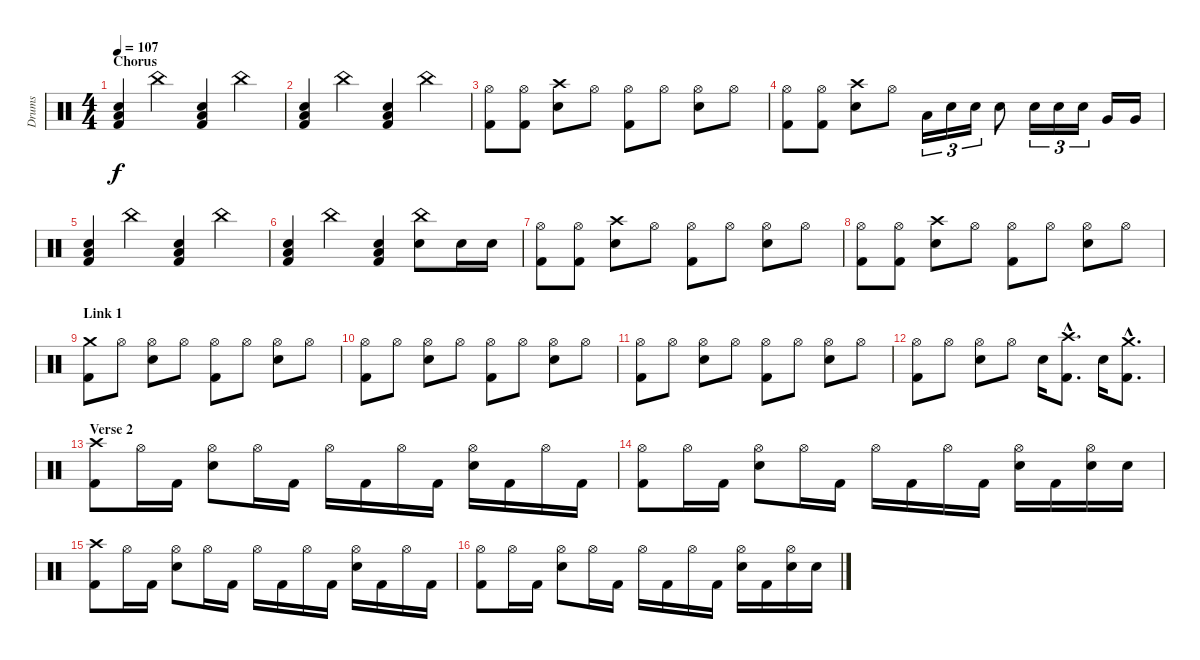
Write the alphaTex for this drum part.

\track ("Drums" "Drums") {instrument percussion}
\staff {score}
\articulation defaults
\ts (4 4)
\section ("" "Chorus")
\tempo 107
\clef neutral
\ks c
("Electric Snare (hit)" "Low Floor Tom (hit)" "Kick (hit) 2").4{dy f} "China (hit)".4 ("Electric Snare (hit)" "Low Floor Tom (hit)" "Kick (hit) 2").4 "China (hit)".4 |
("Electric Snare (hit)" "Low Floor Tom (hit)" "Kick (hit) 2").4 "China (hit)".4 ("Electric Snare (hit)" "Low Floor Tom (hit)" "Kick (hit) 2").4 "China (hit)".4 |
("Hi-Hat (open)" "Kick (hit) 2").8 ("Hi-Hat (open)" "Kick (hit) 2").8 ("Crash high (hit)" "Electric Snare (hit)").8 "Hi-Hat (open)".8 ("Hi-Hat (open)" "Kick (hit) 2").8 "Hi-Hat (open)".8 ("Hi-Hat (open)" "Electric Snare (hit)").8 "Hi-Hat (open)".8 |
("Hi-Hat (open)" "Kick (hit) 2").8 ("Hi-Hat (open)" "Kick (hit) 2").8 ("Crash high (hit)" "Electric Snare (hit)").8 "Hi-Hat (open)".8 "Low Tom (hit)".16{tu (3 2)} "Electric Snare (hit)".16{tu (3 2)} "Electric Snare (hit)".16{tu (3 2)} "Electric Snare (hit)".8 "Electric Snare (hit)".16{tu (3 2)} "Electric Snare (hit)".16{tu (3 2)} "Electric Snare (hit)".16{tu (3 2)} "Very Low Tom (hit)".16 "Very Low Tom (hit)".16 |
("Electric Snare (hit)" "Low Floor Tom (hit)" "Kick (hit) 2").4 "China (hit)".4 ("Electric Snare (hit)" "Low Floor Tom (hit)" "Kick (hit) 2").4 "China (hit)".4 |
("Electric Snare (hit)" "Low Floor Tom (hit)" "Kick (hit) 2").4 "China (hit)".4 ("Electric Snare (hit)" "Low Floor Tom (hit)" "Kick (hit) 2").4 ("China (hit)" "Electric Snare (hit)").8 "Electric Snare (hit)".16 "Electric Snare (hit)".16 |
("Hi-Hat (open)" "Kick (hit) 2").8 ("Hi-Hat (open)" "Kick (hit) 2").8 ("Crash high (hit)" "Electric Snare (hit)").8 "Hi-Hat (open)".8 ("Hi-Hat (open)" "Kick (hit) 2").8 "Hi-Hat (open)".8 ("Hi-Hat (open)" "Electric Snare (hit)").8 "Hi-Hat (open)".8 |
("Hi-Hat (open)" "Kick (hit) 2").8 ("Hi-Hat (open)" "Kick (hit) 2").8 ("Crash high (hit)" "Electric Snare (hit)").8 "Hi-Hat (open)".8 ("Hi-Hat (open)" "Kick (hit) 2").8 "Hi-Hat (open)".8 ("Hi-Hat (open)" "Electric Snare (hit)").8 "Hi-Hat (open)".8 |
\section ("" "Link 1")
("Crash medium (hit)" "Kick (hit) 2").8 "Hi-Hat (open)".8 ("Hi-Hat (open)" "Electric Snare (hit)").8 "Hi-Hat (open)".8 ("Hi-Hat (open)" "Kick (hit) 2").8 "Hi-Hat (open)".8 ("Hi-Hat (open)" "Electric Snare (hit)").8 "Hi-Hat (open)".8 |
("Hi-Hat (open)" "Kick (hit) 2").8 "Hi-Hat (open)".8 ("Hi-Hat (open)" "Electric Snare (hit)").8 "Hi-Hat (open)".8 ("Hi-Hat (open)" "Kick (hit) 2").8 "Hi-Hat (open)".8 ("Hi-Hat (open)" "Electric Snare (hit)").8 "Hi-Hat (open)".8 |
("Hi-Hat (open)" "Kick (hit) 2").8 "Hi-Hat (open)".8 ("Hi-Hat (open)" "Electric Snare (hit)").8 "Hi-Hat (open)".8 ("Hi-Hat (open)" "Kick (hit) 2").8 "Hi-Hat (open)".8 ("Hi-Hat (open)" "Electric Snare (hit)").8 "Hi-Hat (open)".8 |
("Hi-Hat (open)" "Kick (hit) 2").8 "Hi-Hat (open)".8 ("Hi-Hat (open)" "Electric Snare (hit)").8 "Hi-Hat (open)".8 "Electric Snare (hit)".16 ("Crash high (hit)"{hac} "Kick (hit) 2"{hac}).8{d} "Electric Snare (hit)".16 ("Crash medium (hit)"{hac} "Kick (hit) 2"{hac}).8{d} |
\section ("" "Verse 2")
("Crash high (hit)" "Kick (hit) 2").8 "Hi-Hat (open)".16 "Kick (hit) 2".16 ("Hi-Hat (open)" "Electric Snare (hit)").8 "Hi-Hat (open)".16 "Kick (hit) 2".16 "Hi-Hat (open)".16 "Kick (hit) 2".16 "Hi-Hat (open)".16 "Kick (hit) 2".16 ("Hi-Hat (open)" "Electric Snare (hit)").16 "Kick (hit) 2".16 "Hi-Hat (open)".16 "Kick (hit) 2".16 |
("Hi-Hat (open)" "Kick (hit) 2").8 "Hi-Hat (open)".16 "Kick (hit) 2".16 ("Hi-Hat (open)" "Electric Snare (hit)").8 "Hi-Hat (open)".16 "Kick (hit) 2".16 "Hi-Hat (open)".16 "Kick (hit) 2".16 "Hi-Hat (open)".16 "Kick (hit) 2".16 ("Hi-Hat (open)" "Electric Snare (hit)").16 "Kick (hit) 2".16 ("Hi-Hat (open)" "Electric Snare (hit)").16 "Electric Snare (hit)".16 |
("Crash high (hit)" "Kick (hit) 2").8 "Hi-Hat (open)".16 "Kick (hit) 2".16 ("Hi-Hat (open)" "Electric Snare (hit)").8 "Hi-Hat (open)".16 "Kick (hit) 2".16 "Hi-Hat (open)".16 "Kick (hit) 2".16 "Hi-Hat (open)".16 "Kick (hit) 2".16 ("Hi-Hat (open)" "Electric Snare (hit)").16 "Kick (hit) 2".16 "Hi-Hat (open)".16 "Kick (hit) 2".16 |
("Hi-Hat (open)" "Kick (hit) 2").8 "Hi-Hat (open)".16 "Kick (hit) 2".16 ("Hi-Hat (open)" "Electric Snare (hit)").8 "Hi-Hat (open)".16 "Kick (hit) 2".16 "Hi-Hat (open)".16 "Kick (hit) 2".16 "Hi-Hat (open)".16 "Kick (hit) 2".16 ("Hi-Hat (open)" "Electric Snare (hit)").16 "Kick (hit) 2".16 ("Hi-Hat (open)" "Electric Snare (hit)").16 "Electric Snare (hit)".16
